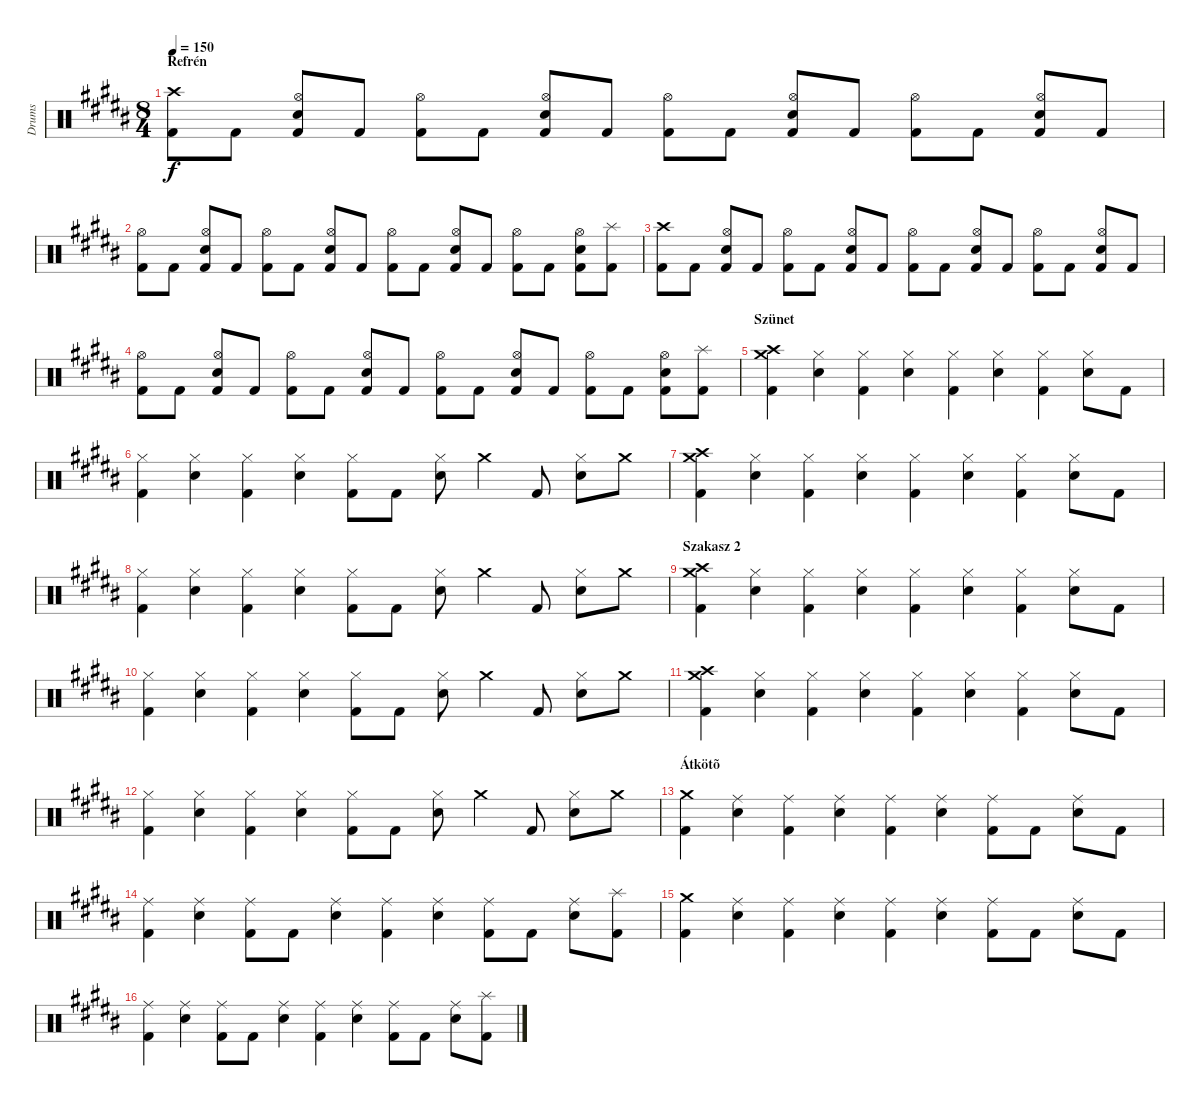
\track ("Drums" "Drums") {instrument percussion}
\staff {score}
\articulation defaults
\ts (8 4)
\section ("" "Refrén")
\tempo 150
\clef neutral
\ks g#minor
("Crash high (hit)" "Kick (hit) 2").8{dy f} "Kick (hit) 2".8 ("Hi-Hat (open)" "Snare (hit) 2" "Kick (hit) 2").8 "Kick (hit) 2".8 ("Hi-Hat (open)" "Kick (hit) 2").8 "Kick (hit) 2".8 ("Hi-Hat (open)" "Snare (hit) 2" "Kick (hit) 2").8 "Kick (hit) 2".8 ("Hi-Hat (open)" "Kick (hit) 2").8 "Kick (hit) 2".8 ("Hi-Hat (open)" "Snare (hit) 2" "Kick (hit) 2").8 "Kick (hit) 2".8 ("Hi-Hat (open)" "Kick (hit) 2").8 "Kick (hit) 2".8 ("Hi-Hat (open)" "Snare (hit) 2" "Kick (hit) 2").8 "Kick (hit) 2".8 |
("Hi-Hat (open)" "Kick (hit) 2").8 "Kick (hit) 2".8 ("Hi-Hat (open)" "Snare (hit) 2" "Kick (hit) 2").8 "Kick (hit) 2".8 ("Hi-Hat (open)" "Kick (hit) 2").8 "Kick (hit) 2".8 ("Hi-Hat (open)" "Snare (hit) 2" "Kick (hit) 2").8 "Kick (hit) 2".8 ("Hi-Hat (open)" "Kick (hit) 2").8 "Kick (hit) 2".8 ("Hi-Hat (open)" "Snare (hit) 2" "Kick (hit) 2").8 "Kick (hit) 2".8 ("Hi-Hat (open)" "Kick (hit) 2").8 "Kick (hit) 2".8 ("Hi-Hat (open)" "Snare (hit) 2" "Kick (hit) 2").8 ("Splash (hit)" "Kick (hit) 2").8 |
("Crash high (hit)" "Kick (hit) 2").8 "Kick (hit) 2".8 ("Hi-Hat (open)" "Snare (hit) 2" "Kick (hit) 2").8 "Kick (hit) 2".8 ("Hi-Hat (open)" "Kick (hit) 2").8 "Kick (hit) 2".8 ("Hi-Hat (open)" "Snare (hit) 2" "Kick (hit) 2").8 "Kick (hit) 2".8 ("Hi-Hat (open)" "Kick (hit) 2").8 "Kick (hit) 2".8 ("Hi-Hat (open)" "Snare (hit) 2" "Kick (hit) 2").8 "Kick (hit) 2".8 ("Hi-Hat (open)" "Kick (hit) 2").8 "Kick (hit) 2".8 ("Hi-Hat (open)" "Snare (hit) 2" "Kick (hit) 2").8 "Kick (hit) 2".8 |
("Hi-Hat (open)" "Kick (hit) 2").8 "Kick (hit) 2".8 ("Hi-Hat (open)" "Snare (hit) 2" "Kick (hit) 2").8 "Kick (hit) 2".8 ("Hi-Hat (open)" "Kick (hit) 2").8 "Kick (hit) 2".8 ("Hi-Hat (open)" "Snare (hit) 2" "Kick (hit) 2").8 "Kick (hit) 2".8 ("Hi-Hat (open)" "Kick (hit) 2").8 "Kick (hit) 2".8 ("Hi-Hat (open)" "Snare (hit) 2" "Kick (hit) 2").8 "Kick (hit) 2".8 ("Hi-Hat (open)" "Kick (hit) 2").8 "Kick (hit) 2".8 ("Hi-Hat (open)" "Snare (hit) 2" "Kick (hit) 2").8 ("Splash (hit)" "Kick (hit) 2").8 |
\section ("" "Szünet")
("Crash medium (hit)" "Crash high (hit)" "Kick (hit) 2").4 ("Hi-Hat (closed)" "Snare (hit) 2").4 ("Hi-Hat (closed)" "Kick (hit) 2").4 ("Hi-Hat (closed)" "Snare (hit) 2").4 ("Hi-Hat (closed)" "Kick (hit) 2").4 ("Hi-Hat (closed)" "Snare (hit) 2").4 ("Hi-Hat (closed)" "Kick (hit) 2").4 ("Hi-Hat (closed)" "Snare (hit) 2").8 "Kick (hit) 2".8 |
("Hi-Hat (closed)" "Kick (hit) 2").4 ("Hi-Hat (closed)" "Snare (hit) 2").4 ("Hi-Hat (closed)" "Kick (hit) 2").4 ("Hi-Hat (closed)" "Snare (hit) 2").4 ("Hi-Hat (closed)" "Kick (hit) 2").8 "Kick (hit) 2".8 ("Hi-Hat (closed)" "Snare (hit) 2").8 "Crash medium (hit)".4 "Kick (hit) 2".8 ("Hi-Hat (closed)" "Snare (hit) 2").8 "Crash medium (hit)".8 |
("Crash medium (hit)" "Crash high (hit)" "Kick (hit) 2").4 ("Hi-Hat (closed)" "Snare (hit) 2").4 ("Hi-Hat (closed)" "Kick (hit) 2").4 ("Hi-Hat (closed)" "Snare (hit) 2").4 ("Hi-Hat (closed)" "Kick (hit) 2").4 ("Hi-Hat (closed)" "Snare (hit) 2").4 ("Hi-Hat (closed)" "Kick (hit) 2").4 ("Hi-Hat (closed)" "Snare (hit) 2").8 "Kick (hit) 2".8 |
("Hi-Hat (closed)" "Kick (hit) 2").4 ("Hi-Hat (closed)" "Snare (hit) 2").4 ("Hi-Hat (closed)" "Kick (hit) 2").4 ("Hi-Hat (closed)" "Snare (hit) 2").4 ("Hi-Hat (closed)" "Kick (hit) 2").8 "Kick (hit) 2".8 ("Hi-Hat (closed)" "Snare (hit) 2").8 "Crash medium (hit)".4 "Kick (hit) 2".8 ("Hi-Hat (closed)" "Snare (hit) 2").8 "Crash medium (hit)".8 |
\section ("" "Szakasz 2")
("Crash medium (hit)" "Crash high (hit)" "Kick (hit) 2").4 ("Hi-Hat (closed)" "Snare (hit) 2").4 ("Hi-Hat (closed)" "Kick (hit) 2").4 ("Hi-Hat (closed)" "Snare (hit) 2").4 ("Hi-Hat (closed)" "Kick (hit) 2").4 ("Hi-Hat (closed)" "Snare (hit) 2").4 ("Hi-Hat (closed)" "Kick (hit) 2").4 ("Hi-Hat (closed)" "Snare (hit) 2").8 "Kick (hit) 2".8 |
("Hi-Hat (closed)" "Kick (hit) 2").4 ("Hi-Hat (closed)" "Snare (hit) 2").4 ("Hi-Hat (closed)" "Kick (hit) 2").4 ("Hi-Hat (closed)" "Snare (hit) 2").4 ("Hi-Hat (closed)" "Kick (hit) 2").8 "Kick (hit) 2".8 ("Hi-Hat (closed)" "Snare (hit) 2").8 "Crash medium (hit)".4 "Kick (hit) 2".8 ("Hi-Hat (closed)" "Snare (hit) 2").8 "Crash medium (hit)".8 |
("Crash medium (hit)" "Crash high (hit)" "Kick (hit) 2").4 ("Hi-Hat (closed)" "Snare (hit) 2").4 ("Hi-Hat (closed)" "Kick (hit) 2").4 ("Hi-Hat (closed)" "Snare (hit) 2").4 ("Hi-Hat (closed)" "Kick (hit) 2").4 ("Hi-Hat (closed)" "Snare (hit) 2").4 ("Hi-Hat (closed)" "Kick (hit) 2").4 ("Hi-Hat (closed)" "Snare (hit) 2").8 "Kick (hit) 2".8 |
("Hi-Hat (closed)" "Kick (hit) 2").4 ("Hi-Hat (closed)" "Snare (hit) 2").4 ("Hi-Hat (closed)" "Kick (hit) 2").4 ("Hi-Hat (closed)" "Snare (hit) 2").4 ("Hi-Hat (closed)" "Kick (hit) 2").8 "Kick (hit) 2".8 ("Hi-Hat (closed)" "Snare (hit) 2").8 "Crash medium (hit)".4 "Kick (hit) 2".8 ("Hi-Hat (closed)" "Snare (hit) 2").8 "Crash medium (hit)".8 |
\section ("" "Átkötõ")
("Crash medium (hit)" "Kick (hit) 2").4 ("Ride (middle)" "Snare (hit) 2").4 ("Ride (middle)" "Kick (hit) 2").4 ("Ride (middle)" "Snare (hit) 2").4 ("Ride (middle)" "Kick (hit) 2").4 ("Ride (middle)" "Snare (hit) 2").4 ("Ride (middle)" "Kick (hit) 2").8 "Kick (hit) 2".8 ("Ride (middle)" "Snare (hit) 2").8 "Kick (hit) 2".8 |
("Ride (middle)" "Kick (hit) 2").4 ("Ride (middle)" "Snare (hit) 2").4 ("Ride (middle)" "Kick (hit) 2").8 "Kick (hit) 2".8 ("Ride (middle)" "Snare (hit) 2").4 ("Ride (middle)" "Kick (hit) 2").4 ("Ride (middle)" "Snare (hit) 2").4 ("Ride (middle)" "Kick (hit) 2").8 "Kick (hit) 2".8 ("Ride (middle)" "Snare (hit) 2").8 ("Splash (hit)" "Kick (hit) 2").8 |
("Crash medium (hit)" "Kick (hit) 2").4 ("Ride (middle)" "Snare (hit) 2").4 ("Ride (middle)" "Kick (hit) 2").4 ("Ride (middle)" "Snare (hit) 2").4 ("Ride (middle)" "Kick (hit) 2").4 ("Ride (middle)" "Snare (hit) 2").4 ("Ride (middle)" "Kick (hit) 2").8 "Kick (hit) 2".8 ("Ride (middle)" "Snare (hit) 2").8 "Kick (hit) 2".8 |
("Ride (middle)" "Kick (hit) 2").4 ("Ride (middle)" "Snare (hit) 2").4 ("Ride (middle)" "Kick (hit) 2").8 "Kick (hit) 2".8 ("Ride (middle)" "Snare (hit) 2").4 ("Ride (middle)" "Kick (hit) 2").4 ("Ride (middle)" "Snare (hit) 2").4 ("Ride (middle)" "Kick (hit) 2").8 "Kick (hit) 2".8 ("Ride (middle)" "Snare (hit) 2").8 ("Splash (hit)" "Kick (hit) 2").8
